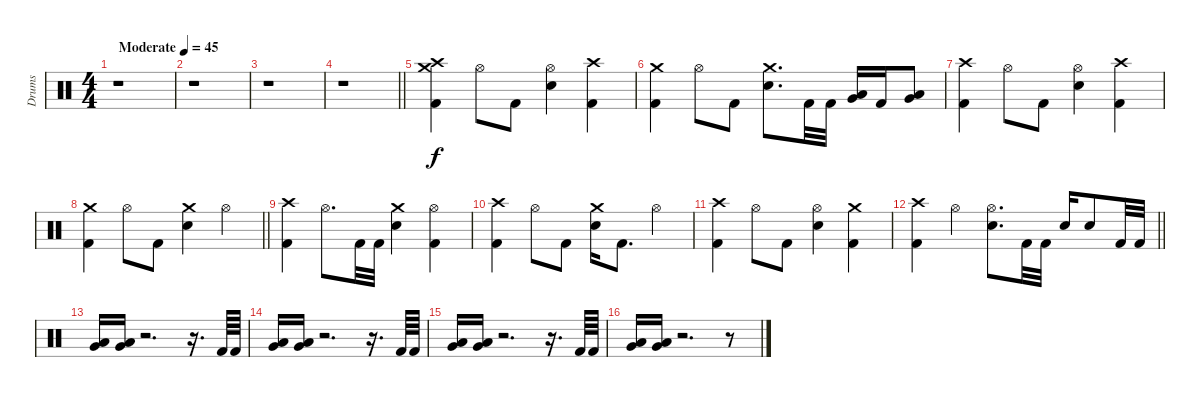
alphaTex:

\track ("Drums" "Drums") {instrument percussion}
\staff {score}
\articulation defaults
\ts (4 4)
\tempo (45 "Moderate")
\clef neutral
\ks c
r.1{dy f} |
r.1 |
r.1 |
\barLineRight lightlight
r.1 |
("Crash medium (hit)" "Crash high (hit)" "Kick (hit) 2").4 "Hi-Hat (open)".8 "Kick (hit) 2".8 ("Hi-Hat (open)" "Snare (hit) 2").4 ("Crash high (hit)" "Kick (hit) 2").4 |
("Crash medium (hit)" "Kick (hit) 2").4 "Hi-Hat (open)".8 "Kick (hit) 2".8 ("Crash medium (hit)" "Snare (hit) 2").8{d} "Kick (hit) 2".32 "Kick (hit) 2".32 ("Low Tom (hit)" "Very Low Tom (hit)").16 "Kick (hit) 2".16 ("Very Low Tom (hit)" "Low Floor Tom (hit)").8 |
("Crash high (hit)" "Kick (hit) 2").4 "Hi-Hat (open)".8 "Kick (hit) 2".8 ("Hi-Hat (open)" "Snare (hit) 2").4 ("Crash high (hit)" "Kick (hit) 2").4 |
\barLineRight lightlight
("Crash medium (hit)" "Kick (hit) 2").4 "Hi-Hat (open)".8 "Kick (hit) 2".8 ("Crash medium (hit)" "Snare (hit) 2").4 "Hi-Hat (open)".4 |
("Crash high (hit)" "Kick (hit) 2").4 "Hi-Hat (open)".8{d} "Kick (hit) 2".32 "Kick (hit) 2".32 ("Crash medium (hit)" "Snare (hit) 2").4 ("Hi-Hat (open)" "Kick (hit) 2").4 |
("Crash high (hit)" "Kick (hit) 2").4 "Hi-Hat (open)".8 "Kick (hit) 2".8 ("Crash medium (hit)" "Snare (hit) 2").16 "Kick (hit) 2".8{d} "Hi-Hat (open)".4 |
("Crash high (hit)" "Kick (hit) 2").4 "Hi-Hat (open)".8 "Kick (hit) 2".8 ("Hi-Hat (open)" "Snare (hit) 2").4 ("Crash medium (hit)" "Kick (hit) 2").4 |
\barLineRight lightlight
("Crash high (hit)" "Kick (hit) 2").4 "Hi-Hat (open)".4 ("Hi-Hat (open)" "Snare (hit) 2").8{d} "Kick (hit) 2".32 "Kick (hit) 2".32 "Snare (hit) 2".16 "Snare (hit) 2".8 "Kick (hit) 2".32 "Kick (hit) 2".32 |
("Low Tom (hit)" "Very Low Tom (hit)").16 ("Low Tom (hit)" "Very Low Tom (hit)").16 r.2{d} r.16{d} "Kick (hit) 2".64 "Kick (hit) 2".64 |
("Low Tom (hit)" "Very Low Tom (hit)").16 ("Low Tom (hit)" "Very Low Tom (hit)").16 r.2{d} r.16{d} "Kick (hit) 2".64 "Kick (hit) 2".64 |
("Low Tom (hit)" "Very Low Tom (hit)").16 ("Low Tom (hit)" "Very Low Tom (hit)").16 r.2{d} r.16{d} "Kick (hit) 2".64 "Kick (hit) 2".64 |
("Low Tom (hit)" "Very Low Tom (hit)").16 ("Low Tom (hit)" "Very Low Tom (hit)").16 r.2{d} r.8
